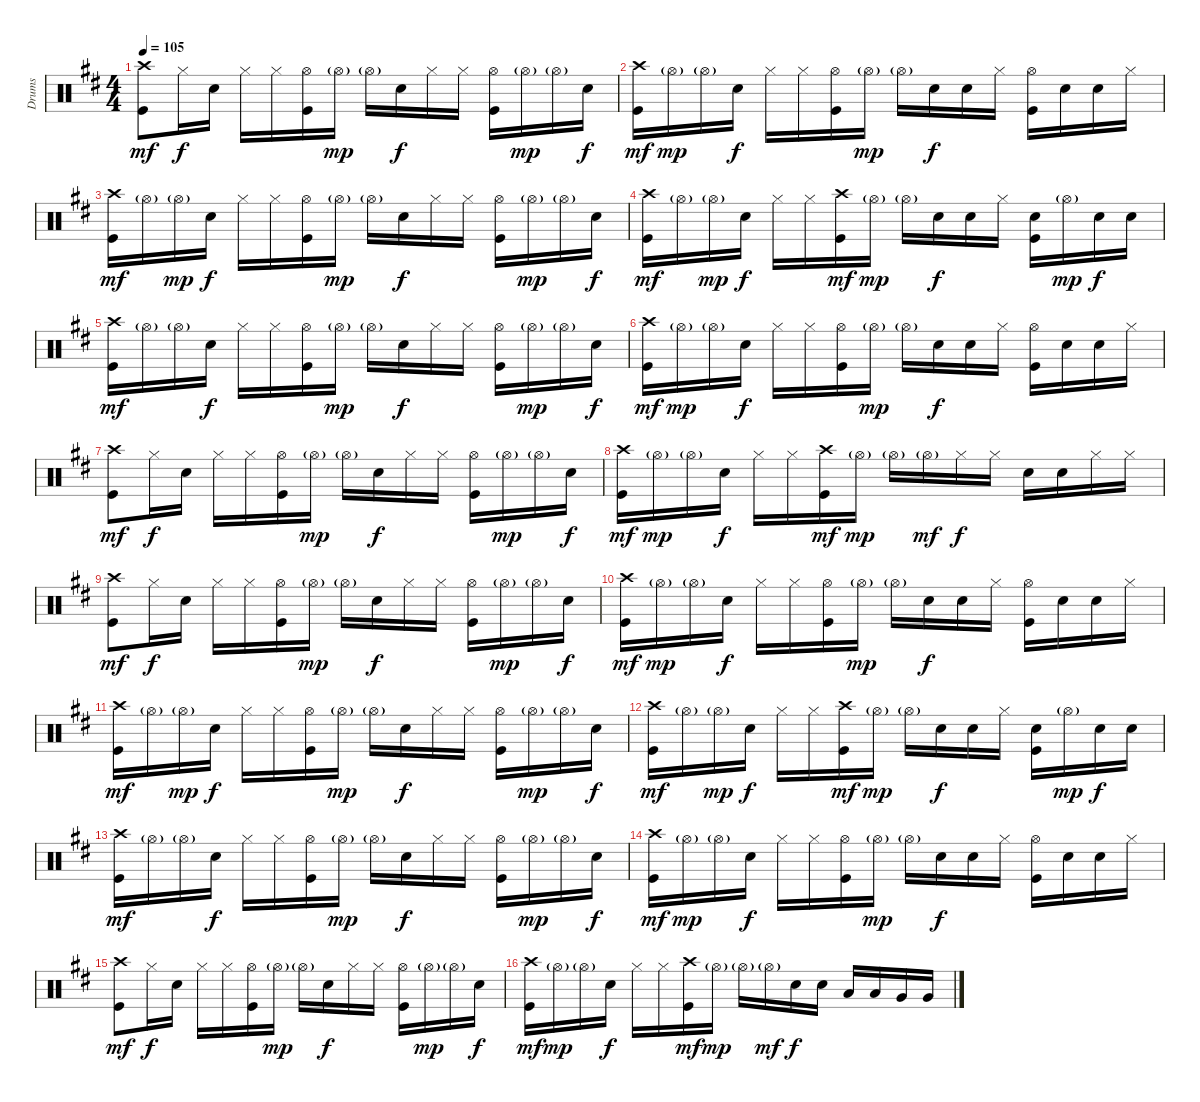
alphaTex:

\track ("Drums" "Drums") {instrument percussion}
\staff {score}
\articulation defaults
\ts (4 4)
\tempo 105
\clef neutral
\ks d
("Crash high (hit)" "Kick (hit)").8{dy mf} "Hi-Hat (closed)".16{dy f} "Electric Snare (hit)".16 "Hi-Hat (closed)".16 "Hi-Hat (closed)".16 ("Hi-Hat (open)" "Kick (hit)").16 "Hi-Hat (open)"{g}.16{dy mp} "Hi-Hat (open)"{g}.16 "Electric Snare (hit)".16{dy f} "Hi-Hat (closed)".16 "Hi-Hat (closed)".16 ("Hi-Hat (open)" "Kick (hit)").16 "Hi-Hat (open)"{g}.16{dy mp} "Hi-Hat (open)"{g}.16 "Electric Snare (hit)".16{dy f} |
("Crash high (hit)" "Kick (hit)").16{dy mf} "Hi-Hat (open)"{g}.16{dy mp} "Hi-Hat (open)"{g}.16 "Electric Snare (hit)".16{dy f} "Hi-Hat (closed)".16 "Hi-Hat (closed)".16 ("Hi-Hat (open)" "Kick (hit)").16 "Hi-Hat (open)"{g}.16{dy mp} "Hi-Hat (open)"{g}.16 "Electric Snare (hit)".16{dy f} "Electric Snare (hit)".16 "Hi-Hat (closed)".16 ("Hi-Hat (open)" "Kick (hit)").16 "Electric Snare (hit)".16 "Electric Snare (hit)".16 "Hi-Hat (closed)".16 |
("Crash high (hit)" "Kick (hit)").16{dy mf} "Hi-Hat (open)"{g}.16 "Hi-Hat (open)"{g}.16{dy mp} "Electric Snare (hit)".16{dy f} "Hi-Hat (closed)".16 "Hi-Hat (closed)".16 ("Hi-Hat (open)" "Kick (hit)").16 "Hi-Hat (open)"{g}.16{dy mp} "Hi-Hat (open)"{g}.16 "Electric Snare (hit)".16{dy f} "Hi-Hat (closed)".16 "Hi-Hat (closed)".16 ("Hi-Hat (open)" "Kick (hit)").16 "Hi-Hat (open)"{g}.16{dy mp} "Hi-Hat (open)"{g}.16 "Electric Snare (hit)".16{dy f} |
("Crash high (hit)" "Kick (hit)").16{dy mf} "Hi-Hat (open)"{g}.16 "Hi-Hat (open)"{g}.16{dy mp} "Electric Snare (hit)".16{dy f} "Hi-Hat (closed)".16 "Hi-Hat (closed)".16 ("Crash high (hit)" "Kick (hit)").16{dy mf} "Hi-Hat (open)"{g}.16{dy mp} "Hi-Hat (open)"{g}.16 "Electric Snare (hit)".16{dy f} "Electric Snare (hit)".16 "Hi-Hat (closed)".16 ("Electric Snare (hit)" "Kick (hit)").16 "Hi-Hat (open)"{g}.16{dy mp} "Electric Snare (hit)".16{dy f} "Electric Snare (hit)".16 |
("Crash high (hit)" "Kick (hit)").16{dy mf} "Hi-Hat (open)"{g}.16 "Hi-Hat (open)"{g}.16 "Electric Snare (hit)".16{dy f} "Hi-Hat (closed)".16 "Hi-Hat (closed)".16 ("Hi-Hat (open)" "Kick (hit)").16 "Hi-Hat (open)"{g}.16{dy mp} "Hi-Hat (open)"{g}.16 "Electric Snare (hit)".16{dy f} "Hi-Hat (closed)".16 "Hi-Hat (closed)".16 ("Hi-Hat (open)" "Kick (hit)").16 "Hi-Hat (open)"{g}.16{dy mp} "Hi-Hat (open)"{g}.16 "Electric Snare (hit)".16{dy f} |
("Crash high (hit)" "Kick (hit)").16{dy mf} "Hi-Hat (open)"{g}.16{dy mp} "Hi-Hat (open)"{g}.16 "Electric Snare (hit)".16{dy f} "Hi-Hat (closed)".16 "Hi-Hat (closed)".16 ("Hi-Hat (open)" "Kick (hit)").16 "Hi-Hat (open)"{g}.16{dy mp} "Hi-Hat (open)"{g}.16 "Electric Snare (hit)".16{dy f} "Electric Snare (hit)".16 "Hi-Hat (closed)".16 ("Hi-Hat (open)" "Kick (hit)").16 "Electric Snare (hit)".16 "Electric Snare (hit)".16 "Hi-Hat (closed)".16 |
("Crash high (hit)" "Kick (hit)").8{dy mf} "Hi-Hat (closed)".16{dy f} "Electric Snare (hit)".16 "Hi-Hat (closed)".16 "Hi-Hat (closed)".16 ("Hi-Hat (open)" "Kick (hit)").16 "Hi-Hat (open)"{g}.16{dy mp} "Hi-Hat (open)"{g}.16 "Electric Snare (hit)".16{dy f} "Hi-Hat (closed)".16 "Hi-Hat (closed)".16 ("Hi-Hat (open)" "Kick (hit)").16 "Hi-Hat (open)"{g}.16{dy mp} "Hi-Hat (open)"{g}.16 "Electric Snare (hit)".16{dy f} |
("Crash high (hit)" "Kick (hit)").16{dy mf} "Hi-Hat (open)"{g}.16{dy mp} "Hi-Hat (open)"{g}.16 "Electric Snare (hit)".16{dy f} "Hi-Hat (closed)".16 "Hi-Hat (closed)".16 ("Crash high (hit)" "Kick (hit)").16{dy mf} "Hi-Hat (open)"{g}.16{dy mp} "Hi-Hat (open)"{g}.16 "Hi-Hat (open)"{g}.16{dy mf} "Hi-Hat (closed)".16{dy f} "Hi-Hat (closed)".16 "Electric Snare (hit)".16 "Electric Snare (hit)".16 "Hi-Hat (closed)".16 "Hi-Hat (closed)".16 |
("Crash high (hit)" "Kick (hit)").8{dy mf} "Hi-Hat (closed)".16{dy f} "Electric Snare (hit)".16 "Hi-Hat (closed)".16 "Hi-Hat (closed)".16 ("Hi-Hat (open)" "Kick (hit)").16 "Hi-Hat (open)"{g}.16{dy mp} "Hi-Hat (open)"{g}.16 "Electric Snare (hit)".16{dy f} "Hi-Hat (closed)".16 "Hi-Hat (closed)".16 ("Hi-Hat (open)" "Kick (hit)").16 "Hi-Hat (open)"{g}.16{dy mp} "Hi-Hat (open)"{g}.16 "Electric Snare (hit)".16{dy f} |
("Crash high (hit)" "Kick (hit)").16{dy mf} "Hi-Hat (open)"{g}.16{dy mp} "Hi-Hat (open)"{g}.16 "Electric Snare (hit)".16{dy f} "Hi-Hat (closed)".16 "Hi-Hat (closed)".16 ("Hi-Hat (open)" "Kick (hit)").16 "Hi-Hat (open)"{g}.16{dy mp} "Hi-Hat (open)"{g}.16 "Electric Snare (hit)".16{dy f} "Electric Snare (hit)".16 "Hi-Hat (closed)".16 ("Hi-Hat (open)" "Kick (hit)").16 "Electric Snare (hit)".16 "Electric Snare (hit)".16 "Hi-Hat (closed)".16 |
("Crash high (hit)" "Kick (hit)").16{dy mf} "Hi-Hat (open)"{g}.16 "Hi-Hat (open)"{g}.16{dy mp} "Electric Snare (hit)".16{dy f} "Hi-Hat (closed)".16 "Hi-Hat (closed)".16 ("Hi-Hat (open)" "Kick (hit)").16 "Hi-Hat (open)"{g}.16{dy mp} "Hi-Hat (open)"{g}.16 "Electric Snare (hit)".16{dy f} "Hi-Hat (closed)".16 "Hi-Hat (closed)".16 ("Hi-Hat (open)" "Kick (hit)").16 "Hi-Hat (open)"{g}.16{dy mp} "Hi-Hat (open)"{g}.16 "Electric Snare (hit)".16{dy f} |
("Crash high (hit)" "Kick (hit)").16{dy mf} "Hi-Hat (open)"{g}.16 "Hi-Hat (open)"{g}.16{dy mp} "Electric Snare (hit)".16{dy f} "Hi-Hat (closed)".16 "Hi-Hat (closed)".16 ("Crash high (hit)" "Kick (hit)").16{dy mf} "Hi-Hat (open)"{g}.16{dy mp} "Hi-Hat (open)"{g}.16 "Electric Snare (hit)".16{dy f} "Electric Snare (hit)".16 "Hi-Hat (closed)".16 ("Electric Snare (hit)" "Kick (hit)").16 "Hi-Hat (open)"{g}.16{dy mp} "Electric Snare (hit)".16{dy f} "Electric Snare (hit)".16 |
("Crash high (hit)" "Kick (hit)").16{dy mf} "Hi-Hat (open)"{g}.16 "Hi-Hat (open)"{g}.16 "Electric Snare (hit)".16{dy f} "Hi-Hat (closed)".16 "Hi-Hat (closed)".16 ("Hi-Hat (open)" "Kick (hit)").16 "Hi-Hat (open)"{g}.16{dy mp} "Hi-Hat (open)"{g}.16 "Electric Snare (hit)".16{dy f} "Hi-Hat (closed)".16 "Hi-Hat (closed)".16 ("Hi-Hat (open)" "Kick (hit)").16 "Hi-Hat (open)"{g}.16{dy mp} "Hi-Hat (open)"{g}.16 "Electric Snare (hit)".16{dy f} |
("Crash high (hit)" "Kick (hit)").16{dy mf} "Hi-Hat (open)"{g}.16{dy mp} "Hi-Hat (open)"{g}.16 "Electric Snare (hit)".16{dy f} "Hi-Hat (closed)".16 "Hi-Hat (closed)".16 ("Hi-Hat (open)" "Kick (hit)").16 "Hi-Hat (open)"{g}.16{dy mp} "Hi-Hat (open)"{g}.16 "Electric Snare (hit)".16{dy f} "Electric Snare (hit)".16 "Hi-Hat (closed)".16 ("Hi-Hat (open)" "Kick (hit)").16 "Electric Snare (hit)".16 "Electric Snare (hit)".16 "Hi-Hat (closed)".16 |
("Crash high (hit)" "Kick (hit)").8{dy mf} "Hi-Hat (closed)".16{dy f} "Electric Snare (hit)".16 "Hi-Hat (closed)".16 "Hi-Hat (closed)".16 ("Hi-Hat (open)" "Kick (hit)").16 "Hi-Hat (open)"{g}.16{dy mp} "Hi-Hat (open)"{g}.16 "Electric Snare (hit)".16{dy f} "Hi-Hat (closed)".16 "Hi-Hat (closed)".16 ("Hi-Hat (open)" "Kick (hit)").16 "Hi-Hat (open)"{g}.16{dy mp} "Hi-Hat (open)"{g}.16 "Electric Snare (hit)".16{dy f} |
("Crash high (hit)" "Kick (hit)").16{dy mf} "Hi-Hat (open)"{g}.16{dy mp} "Hi-Hat (open)"{g}.16 "Electric Snare (hit)".16{dy f} "Hi-Hat (closed)".16 "Hi-Hat (closed)".16 ("Crash high (hit)" "Kick (hit)").16{dy mf} "Hi-Hat (open)"{g}.16{dy mp} "Hi-Hat (open)"{g}.16 "Hi-Hat (open)"{g}.16{dy mf} "Electric Snare (hit)".16{dy f} "Electric Snare (hit)".16 "Low Tom (hit)".16 "Low Tom (hit)".16 "Very Low Tom (hit)".16 "Very Low Tom (hit)".16
